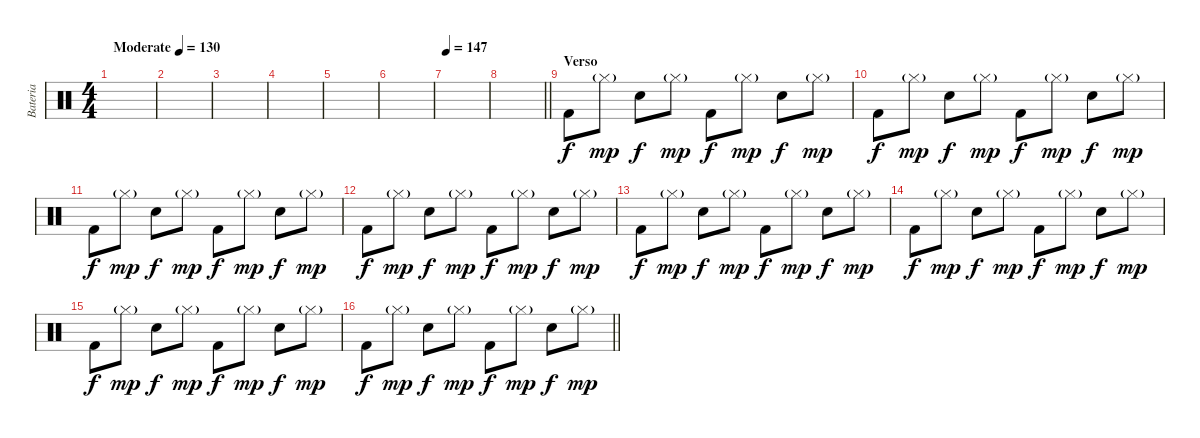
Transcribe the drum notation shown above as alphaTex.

\track ("Bateria" "Bateria") {instrument percussion}
\staff {score}
\articulation defaults
\ts (4 4)
\tempo (130 "Moderate")
\clef neutral
\ks c
|
|
|
|
|
|
\tempo 147
|
\barLineRight lightlight
|
\section ("" "Verso")
"Kick (hit) 2".8 "Hi-Hat (closed)"{g}.8{dy mp} "Electric Snare (hit)".8{dy f} "Hi-Hat (closed)"{g}.8{dy mp} "Kick (hit) 2".8{dy f} "Hi-Hat (closed)"{g}.8{dy mp} "Electric Snare (hit)".8{dy f} "Hi-Hat (closed)"{g}.8{dy mp} |
"Kick (hit) 2".8{dy f} "Hi-Hat (closed)"{g}.8{dy mp} "Electric Snare (hit)".8{dy f} "Hi-Hat (closed)"{g}.8{dy mp} "Kick (hit) 2".8{dy f} "Hi-Hat (closed)"{g}.8{dy mp} "Electric Snare (hit)".8{dy f} "Hi-Hat (closed)"{g}.8{dy mp} |
"Kick (hit) 2".8{dy f} "Hi-Hat (closed)"{g}.8{dy mp} "Electric Snare (hit)".8{dy f} "Hi-Hat (closed)"{g}.8{dy mp} "Kick (hit) 2".8{dy f} "Hi-Hat (closed)"{g}.8{dy mp} "Electric Snare (hit)".8{dy f} "Hi-Hat (closed)"{g}.8{dy mp} |
"Kick (hit) 2".8{dy f} "Hi-Hat (closed)"{g}.8{dy mp} "Electric Snare (hit)".8{dy f} "Hi-Hat (closed)"{g}.8{dy mp} "Kick (hit) 2".8{dy f} "Hi-Hat (closed)"{g}.8{dy mp} "Electric Snare (hit)".8{dy f} "Hi-Hat (closed)"{g}.8{dy mp} |
"Kick (hit) 2".8{dy f} "Hi-Hat (closed)"{g}.8{dy mp} "Electric Snare (hit)".8{dy f} "Hi-Hat (closed)"{g}.8{dy mp} "Kick (hit) 2".8{dy f} "Hi-Hat (closed)"{g}.8{dy mp} "Electric Snare (hit)".8{dy f} "Hi-Hat (closed)"{g}.8{dy mp} |
"Kick (hit) 2".8{dy f} "Hi-Hat (closed)"{g}.8{dy mp} "Electric Snare (hit)".8{dy f} "Hi-Hat (closed)"{g}.8{dy mp} "Kick (hit) 2".8{dy f} "Hi-Hat (closed)"{g}.8{dy mp} "Electric Snare (hit)".8{dy f} "Hi-Hat (closed)"{g}.8{dy mp} |
"Kick (hit) 2".8{dy f} "Hi-Hat (closed)"{g}.8{dy mp} "Electric Snare (hit)".8{dy f} "Hi-Hat (closed)"{g}.8{dy mp} "Kick (hit) 2".8{dy f} "Hi-Hat (closed)"{g}.8{dy mp} "Electric Snare (hit)".8{dy f} "Hi-Hat (closed)"{g}.8{dy mp} |
\barLineRight lightlight "Kick (hit) 2".8{dy f} "Hi-Hat (closed)"{g}.8{dy mp} "Electric Snare (hit)".8{dy f} "Hi-Hat (closed)"{g}.8{dy mp} "Kick (hit) 2".8{dy f} "Hi-Hat (closed)"{g}.8{dy mp} "Electric Snare (hit)".8{dy f} "Hi-Hat (closed)"{g}.8{dy mp}
